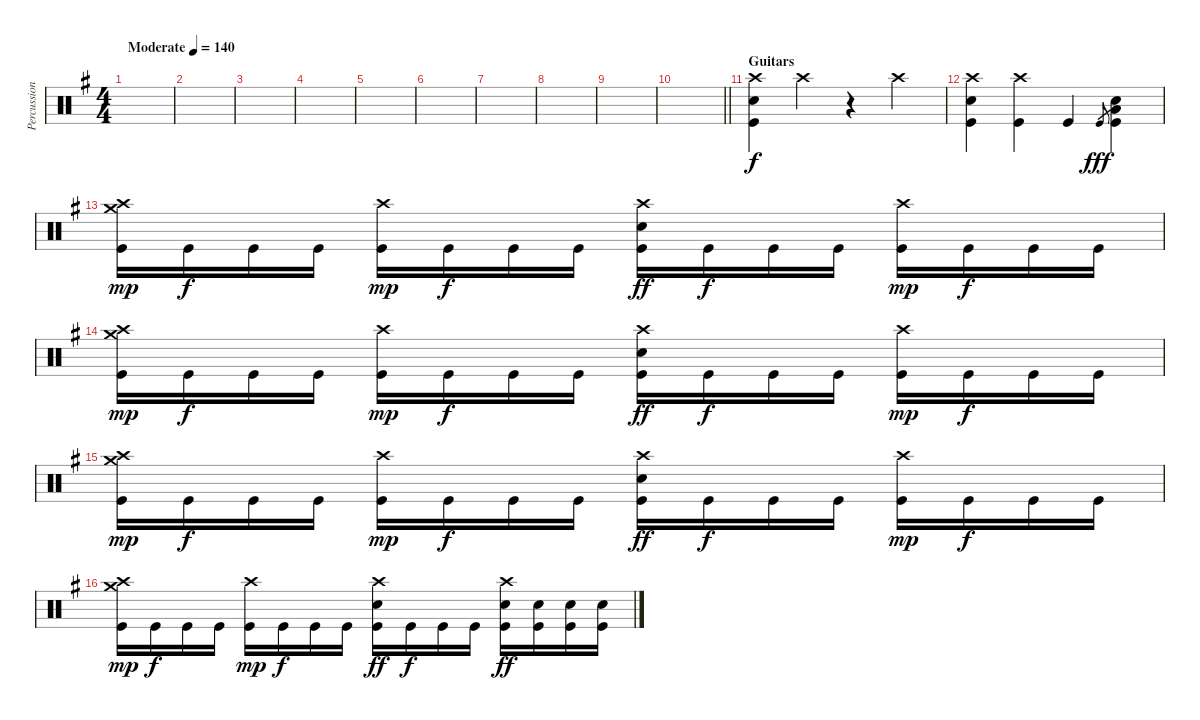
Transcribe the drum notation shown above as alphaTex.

\track ("Percussion" "Percussion") {instrument percussion}
\staff {score}
\articulation defaults
\ts (4 4)
\tempo (140 "Moderate")
\clef neutral
\ks eminor
|
|
|
|
|
|
|
|
|
\barLineRight lightlight
|
\section ("" "Guitars")
("Crash high (hit)" "Snare (hit) 2" "Kick (hit)").4 "Crash high (hit)".4 r.4 "Crash high (hit)".4 |
("Crash high (hit)" "Snare (hit) 2" "Kick (hit)").4 ("Crash high (hit)" "Kick (hit)").4 "Kick (hit)".4 "Kick (hit)".8{gr dy fff} ("Snare (hit) 2" "Low Tom (hit)" "Kick (hit)").4 |
("Crash medium (hit)" "Crash high (hit)" "Kick (hit)").16{dy mp} "Kick (hit)".16{dy f} "Kick (hit)".16 "Kick (hit)".16 ("Crash high (hit)" "Kick (hit)").16{dy mp} "Kick (hit)".16{dy f} "Kick (hit)".16 "Kick (hit)".16 ("Crash high (hit)" "Snare (hit) 2" "Kick (hit)").16{dy ff} "Kick (hit)".16{dy f} "Kick (hit)".16 "Kick (hit)".16 ("Crash high (hit)" "Kick (hit)").16{dy mp} "Kick (hit)".16{dy f} "Kick (hit)".16 "Kick (hit)".16 |
("Crash medium (hit)" "Crash high (hit)" "Kick (hit)").16{dy mp} "Kick (hit)".16{dy f} "Kick (hit)".16 "Kick (hit)".16 ("Crash high (hit)" "Kick (hit)").16{dy mp} "Kick (hit)".16{dy f} "Kick (hit)".16 "Kick (hit)".16 ("Crash high (hit)" "Snare (hit) 2" "Kick (hit)").16{dy ff} "Kick (hit)".16{dy f} "Kick (hit)".16 "Kick (hit)".16 ("Crash high (hit)" "Kick (hit)").16{dy mp} "Kick (hit)".16{dy f} "Kick (hit)".16 "Kick (hit)".16 |
("Crash medium (hit)" "Crash high (hit)" "Kick (hit)").16{dy mp} "Kick (hit)".16{dy f} "Kick (hit)".16 "Kick (hit)".16 ("Crash high (hit)" "Kick (hit)").16{dy mp} "Kick (hit)".16{dy f} "Kick (hit)".16 "Kick (hit)".16 ("Crash high (hit)" "Snare (hit) 2" "Kick (hit)").16{dy ff} "Kick (hit)".16{dy f} "Kick (hit)".16 "Kick (hit)".16 ("Crash high (hit)" "Kick (hit)").16{dy mp} "Kick (hit)".16{dy f} "Kick (hit)".16 "Kick (hit)".16 |
("Crash medium (hit)" "Crash high (hit)" "Kick (hit)").16{dy mp} "Kick (hit)".16{dy f} "Kick (hit)".16 "Kick (hit)".16 ("Crash high (hit)" "Kick (hit)").16{dy mp} "Kick (hit)".16{dy f} "Kick (hit)".16 "Kick (hit)".16 ("Crash high (hit)" "Snare (hit) 2" "Kick (hit)").16{dy ff} "Kick (hit)".16{dy f} "Kick (hit)".16 "Kick (hit)".16 ("Crash high (hit)" "Snare (hit) 2" "Kick (hit)").16{dy ff} ("Snare (hit) 2" "Kick (hit)").16 ("Snare (hit) 2" "Kick (hit)").16 ("Snare (hit) 2" "Kick (hit)").16
